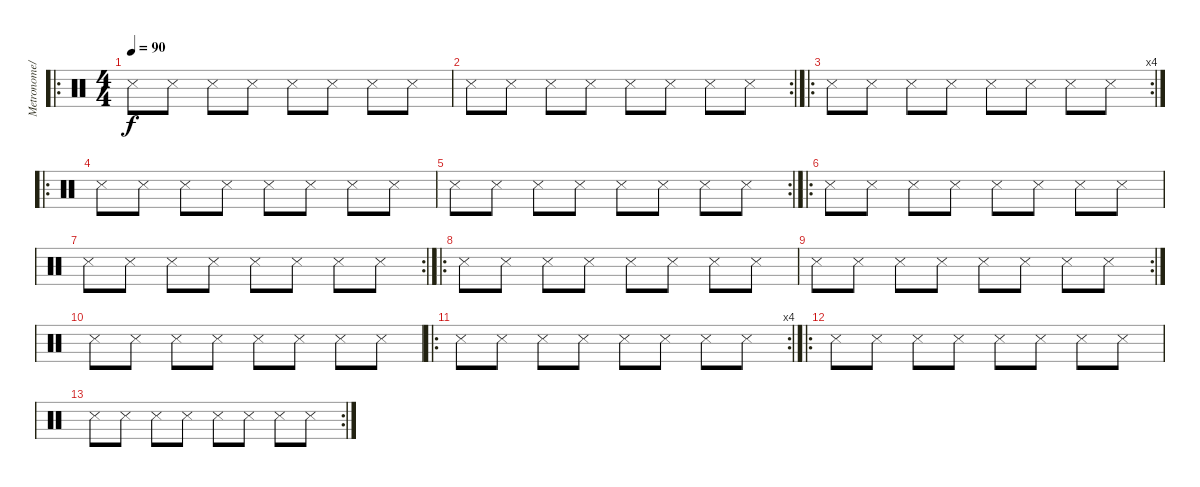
\track ("Metronome/Drums" "Metronome/") {instrument percussion}
\staff {score}
\articulation defaults
\ro
\ts (4 4)
\tempo 90
\clef neutral
\ks c "Snare (side stick) 3".8{dy f} "Snare (side stick) 3".8 "Snare (side stick) 3".8 "Snare (side stick) 3".8 "Snare (side stick) 3".8 "Snare (side stick) 3".8 "Snare (side stick) 3".8 "Snare (side stick) 3".8
|
\rc 2 "Snare (side stick) 3".8 "Snare (side stick) 3".8 "Snare (side stick) 3".8 "Snare (side stick) 3".8 "Snare (side stick) 3".8 "Snare (side stick) 3".8 "Snare (side stick) 3".8 "Snare (side stick) 3".8
|
\ro
\rc 4 "Snare (side stick) 3".8 "Snare (side stick) 3".8 "Snare (side stick) 3".8 "Snare (side stick) 3".8 "Snare (side stick) 3".8 "Snare (side stick) 3".8 "Snare (side stick) 3".8 "Snare (side stick) 3".8
|
\ro "Snare (side stick) 3".8 "Snare (side stick) 3".8 "Snare (side stick) 3".8 "Snare (side stick) 3".8 "Snare (side stick) 3".8 "Snare (side stick) 3".8 "Snare (side stick) 3".8 "Snare (side stick) 3".8
|
\rc 2 "Snare (side stick) 3".8 "Snare (side stick) 3".8 "Snare (side stick) 3".8 "Snare (side stick) 3".8 "Snare (side stick) 3".8 "Snare (side stick) 3".8 "Snare (side stick) 3".8 "Snare (side stick) 3".8
|
\ro "Snare (side stick) 3".8 "Snare (side stick) 3".8 "Snare (side stick) 3".8 "Snare (side stick) 3".8 "Snare (side stick) 3".8 "Snare (side stick) 3".8 "Snare (side stick) 3".8 "Snare (side stick) 3".8
|
\rc 2 "Snare (side stick) 3".8 "Snare (side stick) 3".8 "Snare (side stick) 3".8 "Snare (side stick) 3".8 "Snare (side stick) 3".8 "Snare (side stick) 3".8 "Snare (side stick) 3".8 "Snare (side stick) 3".8
|
\ro "Snare (side stick) 3".8 "Snare (side stick) 3".8 "Snare (side stick) 3".8 "Snare (side stick) 3".8 "Snare (side stick) 3".8 "Snare (side stick) 3".8 "Snare (side stick) 3".8 "Snare (side stick) 3".8
|
\rc 2 "Snare (side stick) 3".8 "Snare (side stick) 3".8 "Snare (side stick) 3".8 "Snare (side stick) 3".8 "Snare (side stick) 3".8 "Snare (side stick) 3".8 "Snare (side stick) 3".8 "Snare (side stick) 3".8
|
"Snare (side stick) 3".8 "Snare (side stick) 3".8 "Snare (side stick) 3".8 "Snare (side stick) 3".8 "Snare (side stick) 3".8 "Snare (side stick) 3".8 "Snare (side stick) 3".8 "Snare (side stick) 3".8 |
\ro
\rc 4 "Snare (side stick) 3".8 "Snare (side stick) 3".8 "Snare (side stick) 3".8 "Snare (side stick) 3".8 "Snare (side stick) 3".8 "Snare (side stick) 3".8 "Snare (side stick) 3".8 "Snare (side stick) 3".8
|
\ro "Snare (side stick) 3".8 "Snare (side stick) 3".8 "Snare (side stick) 3".8 "Snare (side stick) 3".8 "Snare (side stick) 3".8 "Snare (side stick) 3".8 "Snare (side stick) 3".8 "Snare (side stick) 3".8
|
\rc 2 "Snare (side stick) 3".8 "Snare (side stick) 3".8 "Snare (side stick) 3".8 "Snare (side stick) 3".8 "Snare (side stick) 3".8 "Snare (side stick) 3".8 "Snare (side stick) 3".8 "Snare (side stick) 3".8
